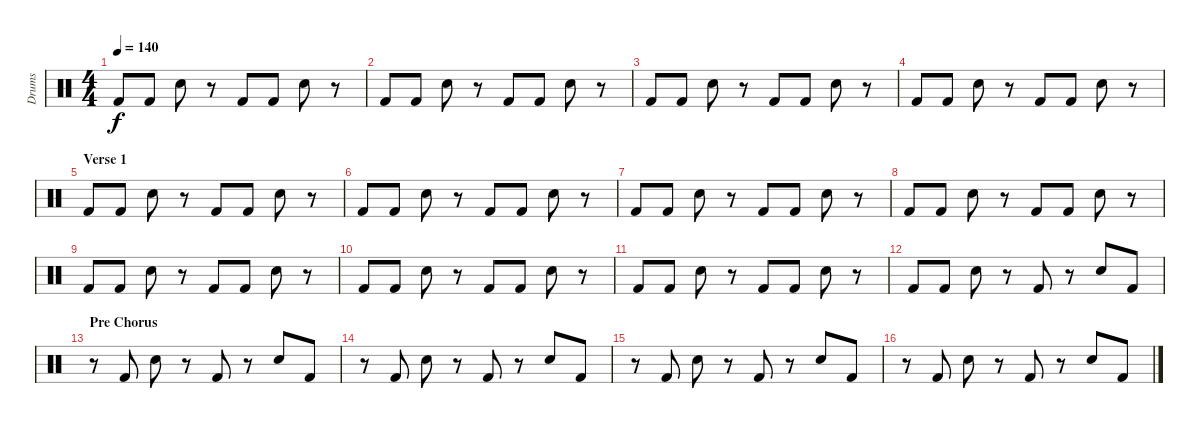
\track ("Drums" "Drums") {instrument percussion}
\staff {score}
\articulation defaults
\ts (4 4)
\tempo 140
\clef neutral
\ks c "Kick (hit) 2".8{dy f} "Kick (hit) 2".8 "Snare (hit) 2".8
r.8 "Kick (hit) 2".8 "Kick (hit) 2".8 "Snare (hit) 2".8 r.8 |
"Kick (hit) 2".8 "Kick (hit) 2".8 "Snare (hit) 2".8 r.8 "Kick (hit) 2".8 "Kick (hit) 2".8 "Snare (hit) 2".8 r.8 |
"Kick (hit) 2".8 "Kick (hit) 2".8 "Snare (hit) 2".8 r.8 "Kick (hit) 2".8 "Kick (hit) 2".8 "Snare (hit) 2".8 r.8 |
"Kick (hit) 2".8 "Kick (hit) 2".8 "Snare (hit) 2".8 r.8 "Kick (hit) 2".8 "Kick (hit) 2".8 "Snare (hit) 2".8 r.8 |
\section ("" "Verse 1")
"Kick (hit) 2".8 "Kick (hit) 2".8 "Snare (hit) 2".8 r.8 "Kick (hit) 2".8 "Kick (hit) 2".8 "Snare (hit) 2".8 r.8 |
"Kick (hit) 2".8 "Kick (hit) 2".8 "Snare (hit) 2".8 r.8 "Kick (hit) 2".8 "Kick (hit) 2".8 "Snare (hit) 2".8 r.8 |
"Kick (hit) 2".8 "Kick (hit) 2".8 "Snare (hit) 2".8 r.8 "Kick (hit) 2".8 "Kick (hit) 2".8 "Snare (hit) 2".8 r.8 |
"Kick (hit) 2".8 "Kick (hit) 2".8 "Snare (hit) 2".8 r.8 "Kick (hit) 2".8 "Kick (hit) 2".8 "Snare (hit) 2".8 r.8 |
"Kick (hit) 2".8 "Kick (hit) 2".8 "Snare (hit) 2".8 r.8 "Kick (hit) 2".8 "Kick (hit) 2".8 "Snare (hit) 2".8 r.8 |
"Kick (hit) 2".8 "Kick (hit) 2".8 "Snare (hit) 2".8 r.8 "Kick (hit) 2".8 "Kick (hit) 2".8 "Snare (hit) 2".8 r.8 |
"Kick (hit) 2".8 "Kick (hit) 2".8 "Snare (hit) 2".8 r.8 "Kick (hit) 2".8 "Kick (hit) 2".8 "Snare (hit) 2".8 r.8 |
"Kick (hit) 2".8 "Kick (hit) 2".8 "Snare (hit) 2".8 r.8 "Kick (hit) 2".8 r.8 "Snare (hit) 2".8 "Kick (hit) 2".8 |
\section ("" "Pre Chorus")
r.8 "Kick (hit) 2".8 "Snare (hit) 2".8 r.8 "Kick (hit) 2".8 r.8 "Snare (hit) 2".8 "Kick (hit) 2".8 |
r.8 "Kick (hit) 2".8 "Snare (hit) 2".8 r.8 "Kick (hit) 2".8 r.8 "Snare (hit) 2".8 "Kick (hit) 2".8 |
r.8 "Kick (hit) 2".8 "Snare (hit) 2".8 r.8 "Kick (hit) 2".8 r.8 "Snare (hit) 2".8 "Kick (hit) 2".8 |
r.8 "Kick (hit) 2".8 "Snare (hit) 2".8 r.8 "Kick (hit) 2".8 r.8 "Snare (hit) 2".8 "Kick (hit) 2".8
